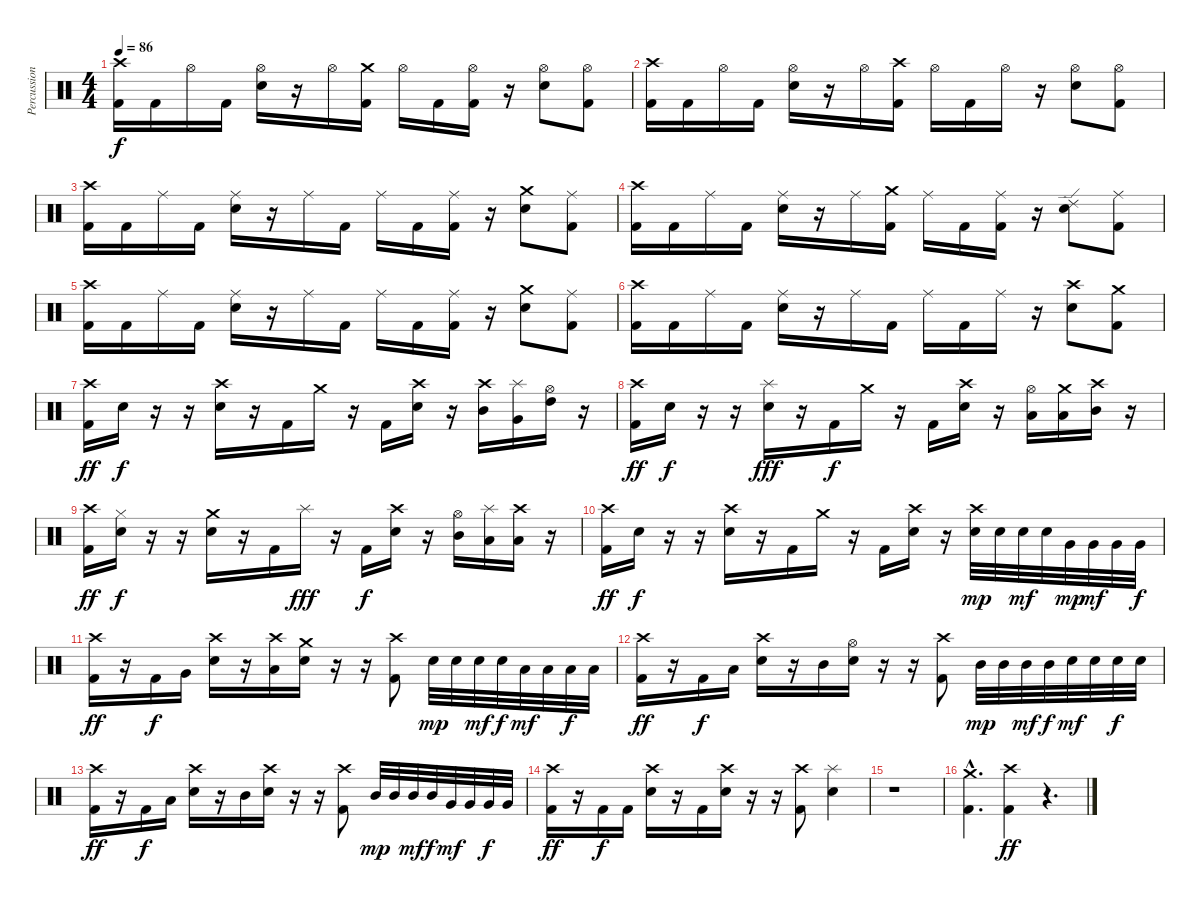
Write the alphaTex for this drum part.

\track ("Percussion" "Percussion") {instrument percussion}
\staff {score}
\articulation defaults
\ts (4 4)
\tempo 86
\clef neutral
\ks c
("Crash high (hit)" "Kick (hit) 2").16{dy f} "Kick (hit) 2".16 "Hi-Hat (open)".16 "Kick (hit) 2".16 ("Hi-Hat (open)" "Electric Snare (hit)").16 r.16 "Hi-Hat (open)".16 ("Crash medium (hit)" "Kick (hit) 2").16 "Hi-Hat (open)".16 "Kick (hit) 2".16 ("Hi-Hat (open)" "Kick (hit) 2").16 r.16 ("Hi-Hat (open)" "Electric Snare (hit)").8 ("Hi-Hat (open)" "Kick (hit) 2").8 |
("Crash high (hit)" "Kick (hit) 2").16 "Kick (hit) 2".16 "Hi-Hat (open)".16 "Kick (hit) 2".16 ("Hi-Hat (open)" "Electric Snare (hit)").16 r.16 "Hi-Hat (open)".16 ("Crash high (hit)" "Kick (hit) 2").16 "Hi-Hat (open)".16 "Kick (hit) 2".16 "Hi-Hat (open)".16 r.16 ("Hi-Hat (open)" "Electric Snare (hit)").8 ("Hi-Hat (open)" "Kick (hit) 2").8 |
("Crash high (hit)" "Kick (hit) 2").16 "Kick (hit) 2".16 "Ride (middle)".16 "Kick (hit) 2".16 ("Ride (middle)" "Electric Snare (hit)").16 r.16 "Ride (middle)".16 "Kick (hit) 2".16 "Ride (middle)".16 "Kick (hit) 2".16 ("Ride (middle)" "Kick (hit) 2").16 r.16 ("Crash medium (hit)" "Electric Snare (hit)").8 ("Ride (middle)" "Kick (hit) 2").8 |
("Crash high (hit)" "Kick (hit) 2").16 "Kick (hit) 2".16 "Ride (middle)".16 "Kick (hit) 2".16 ("Ride (middle)" "Electric Snare (hit)").16 r.16 "Ride (middle)".16 ("Crash medium (hit)" "Kick (hit) 2").16 "Ride (middle)".16 "Kick (hit) 2".16 ("Ride (middle)" "Kick (hit) 2").16 r.16 ("Ride (edge) 2" "Electric Snare (hit)").8 ("Ride (middle)" "Kick (hit) 2").8 |
("Crash high (hit)" "Kick (hit) 2").16 "Kick (hit) 2".16 "Ride (middle)".16 "Kick (hit) 2".16 ("Ride (middle)" "Electric Snare (hit)").16 r.16 "Ride (middle)".16 "Kick (hit) 2".16 "Ride (middle)".16 "Kick (hit) 2".16 ("Ride (middle)" "Kick (hit) 2").16 r.16 ("Crash medium (hit)" "Electric Snare (hit)").8 ("Ride (middle)" "Kick (hit) 2").8 |
("Crash high (hit)" "Kick (hit) 2").16 "Kick (hit) 2".16 "Ride (middle)".16 "Kick (hit) 2".16 ("Ride (middle)" "Electric Snare (hit)").16 r.16 "Ride (middle)".16 "Kick (hit) 2".16 "Ride (middle)".16 "Kick (hit) 2".16 "Ride (middle)".16 r.16 ("Crash high (hit)" "Electric Snare (hit)").8 ("Crash medium (hit)" "Kick (hit) 2").8 |
("Crash high (hit)" "Kick (hit) 2").16{dy ff volume 13} "Electric Snare (hit)".16{dy f} r.16 r.16 ("Crash high (hit)" "Electric Snare (hit)").16 r.16 "Kick (hit) 2".16 "Crash medium (hit)".16 r.16 "Kick (hit) 2".16 ("Crash high (hit)" "Electric Snare (hit)").16 r.16 ("Crash high (hit)" "Mid Tom (hit)").16 ("Splash (hit)" "Very Low Tom (hit)").16 ("Hi-Hat (open)" "High Tom (hit)").16 r.16 |
("Crash high (hit)" "Kick (hit) 2").16{dy ff} "Electric Snare (hit)".16{dy f} r.16 r.16 ("Splash (hit)" "Electric Snare (hit)").16{dy fff} r.16 "Kick (hit) 2".16{dy f} "Crash medium (hit)".16 r.16 "Kick (hit) 2".16 ("Crash high (hit)" "Electric Snare (hit)").16 r.16 ("Hi-Hat (open)" "Low Tom (hit)").16 ("Crash medium (hit)" "Low Floor Tom (hit)").16 ("Crash high (hit)" "Mid Tom (hit)").16 r.16 |
("Crash high (hit)" "Kick (hit) 2").16{dy ff} ("Hi-Hat (closed)" "Electric Snare (hit)").16{dy f} r.16 r.16 ("Crash medium (hit)" "Electric Snare (hit)").16 r.16 "Kick (hit) 2".16 "Splash (hit)".16{dy fff} r.16 "Kick (hit) 2".16{dy f} ("Crash high (hit)" "Electric Snare (hit)").16 r.16 ("Hi-Hat (open)" "Mid Tom (hit)").16 ("Splash (hit)" "Low Tom (hit)").16 ("Crash high (hit)" "Low Floor Tom (hit)").16 r.16 |
("Crash high (hit)" "Kick (hit) 2").16{dy ff} "Electric Snare (hit)".16{dy f} r.16 r.16 ("Crash high (hit)" "Electric Snare (hit)").16 r.16 "Kick (hit) 2".16 "Crash medium (hit)".16 r.16 "Kick (hit) 2".16 ("Crash high (hit)" "Electric Snare (hit)").16 r.16 ("Crash high (hit)" "Electric Snare (hit)").32{dy mp} "Electric Snare (hit)".32 "Electric Snare (hit)".32{dy mf} "Electric Snare (hit)".32 "Very Low Tom (hit)".32{dy mp} "Very Low Tom (hit)".32{dy mf} "Very Low Tom (hit)".32 "Very Low Tom (hit)".32{dy f} |
("Crash high (hit)" "Kick (hit) 2").16{dy ff} r.16 "Kick (hit) 2".16{dy f} "Very Low Tom (hit)".16 ("Crash high (hit)" "Electric Snare (hit)").16 r.16 ("Crash high (hit)" "Low Tom (hit)").16 ("Crash medium (hit)" "Electric Snare (hit)").16 r.16 r.16 ("Crash high (hit)" "Kick (hit) 2").8 "Electric Snare (hit)".32{dy mp} "Electric Snare (hit)".32 "Electric Snare (hit)".32{dy mf} "Electric Snare (hit)".32{dy f} "Low Tom (hit)".32{dy mf} "Low Tom (hit)".32 "Low Tom (hit)".32{dy f} "Low Tom (hit)".32 |
("Crash high (hit)" "Kick (hit) 2").16{dy ff} r.16 "Kick (hit) 2".16{dy f} "Low Tom (hit)".16 ("Crash high (hit)" "Electric Snare (hit)").16 r.16 "Mid Tom (hit)".16 ("Hi-Hat (open)" "Electric Snare (hit)").16 r.16 r.16 ("Crash high (hit)" "Kick (hit) 2").8 "Mid Tom (hit)".32{dy mp} "Mid Tom (hit)".32 "Mid Tom (hit)".32{dy mf} "Mid Tom (hit)".32{dy f} "Electric Snare (hit)".32{dy mf} "Electric Snare (hit)".32 "Electric Snare (hit)".32{dy f} "Electric Snare (hit)".32 |
("Crash high (hit)" "Kick (hit) 2").16{dy ff} r.16 "Kick (hit) 2".16{dy f} "Low Floor Tom (hit)".16 ("Crash high (hit)" "Electric Snare (hit)").16 r.16 "Mid Tom (hit)".16 ("Crash high (hit)" "Electric Snare (hit)").16 r.16 r.16 ("Crash high (hit)" "Kick (hit) 2").8 "Mid Tom (hit)".32{dy mp} "Mid Tom (hit)".32 "Mid Tom (hit)".32{dy mf} "Mid Tom (hit)".32{dy f} "Very Low Tom (hit)".32{dy mf} "Very Low Tom (hit)".32 "Very Low Tom (hit)".32{dy f} "Very Low Tom (hit)".32 |
("Crash high (hit)" "Kick (hit) 2").16{dy ff} r.16 "Kick (hit) 2".16{dy f} "Kick (hit) 2".16 ("Crash high (hit)" "Electric Snare (hit)").16 r.16 "Kick (hit) 2".16 ("Crash high (hit)" "Electric Snare (hit)").16 r.16 r.16 ("Crash high (hit)" "Kick (hit) 2").8 ("Splash (hit)" "Electric Snare (hit)").4 |
r.1 |
("Crash medium (hit)"{hac} "Kick (hit) 2"{hac}).4{d} ("Crash high (hit)" "Kick (hit) 2").4{dy ff} r.4{d}
